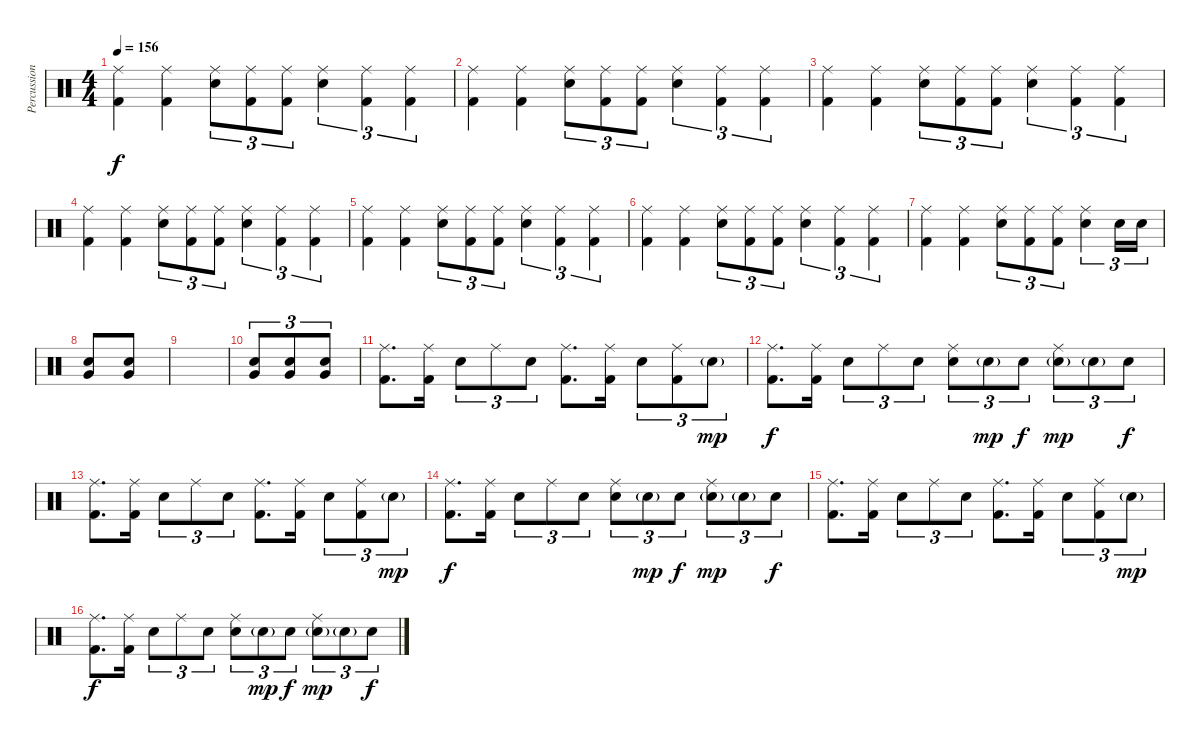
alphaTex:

\track ("Percussion" "Percussion") {instrument percussion}
\staff {score}
\articulation defaults
\ts (4 4)
\tempo 156
\clef neutral
\ks c
("Ride (middle)" "Kick (hit) 2").4{dy f} ("Ride (middle)" "Kick (hit) 2").4 ("Ride (middle)" "Electric Snare (hit)").8{tu (3 2)} ("Ride (middle)" "Kick (hit) 2").8{tu (3 2)} ("Ride (middle)" "Kick (hit) 2").8{tu (3 2)} ("Ride (middle)" "Electric Snare (hit)").4{tu (3 2)} ("Ride (middle)" "Kick (hit) 2").4{tu (3 2)} ("Ride (middle)" "Kick (hit) 2").4{tu (3 2)} |
("Ride (middle)" "Kick (hit) 2").4 ("Ride (middle)" "Kick (hit) 2").4 ("Ride (middle)" "Electric Snare (hit)").8{tu (3 2)} ("Ride (middle)" "Kick (hit) 2").8{tu (3 2)} ("Ride (middle)" "Kick (hit) 2").8{tu (3 2)} ("Ride (middle)" "Electric Snare (hit)").4{tu (3 2)} ("Ride (middle)" "Kick (hit) 2").4{tu (3 2)} ("Ride (middle)" "Kick (hit) 2").4{tu (3 2)} |
("Ride (middle)" "Kick (hit) 2").4 ("Ride (middle)" "Kick (hit) 2").4 ("Ride (middle)" "Electric Snare (hit)").8{tu (3 2)} ("Ride (middle)" "Kick (hit) 2").8{tu (3 2)} ("Ride (middle)" "Kick (hit) 2").8{tu (3 2)} ("Ride (middle)" "Electric Snare (hit)").4{tu (3 2)} ("Ride (middle)" "Kick (hit) 2").4{tu (3 2)} ("Ride (middle)" "Kick (hit) 2").4{tu (3 2)} |
("Ride (middle)" "Kick (hit) 2").4 ("Ride (middle)" "Kick (hit) 2").4 ("Ride (middle)" "Electric Snare (hit)").8{tu (3 2)} ("Ride (middle)" "Kick (hit) 2").8{tu (3 2)} ("Ride (middle)" "Kick (hit) 2").8{tu (3 2)} ("Ride (middle)" "Electric Snare (hit)").4{tu (3 2)} ("Ride (middle)" "Kick (hit) 2").4{tu (3 2)} ("Ride (middle)" "Kick (hit) 2").4{tu (3 2)} |
("Ride (middle)" "Kick (hit) 2").4 ("Ride (middle)" "Kick (hit) 2").4 ("Ride (middle)" "Electric Snare (hit)").8{tu (3 2)} ("Ride (middle)" "Kick (hit) 2").8{tu (3 2)} ("Ride (middle)" "Kick (hit) 2").8{tu (3 2)} ("Ride (middle)" "Electric Snare (hit)").4{tu (3 2)} ("Ride (middle)" "Kick (hit) 2").4{tu (3 2)} ("Ride (middle)" "Kick (hit) 2").4{tu (3 2)} |
("Ride (middle)" "Kick (hit) 2").4 ("Ride (middle)" "Kick (hit) 2").4 ("Ride (middle)" "Electric Snare (hit)").8{tu (3 2)} ("Ride (middle)" "Kick (hit) 2").8{tu (3 2)} ("Ride (middle)" "Kick (hit) 2").8{tu (3 2)} ("Ride (middle)" "Electric Snare (hit)").4{tu (3 2)} ("Ride (middle)" "Kick (hit) 2").4{tu (3 2)} ("Ride (middle)" "Kick (hit) 2").4{tu (3 2)} |
("Ride (middle)" "Kick (hit) 2").4 ("Ride (middle)" "Kick (hit) 2").4 ("Ride (middle)" "Electric Snare (hit)").8{tu (3 2)} ("Ride (middle)" "Kick (hit) 2").8{tu (3 2)} ("Ride (middle)" "Kick (hit) 2").8{tu (3 2)} ("Ride (middle)" "Electric Snare (hit)").4{tu (3 2)} "Electric Snare (hit)".16{tu (3 2)} "Electric Snare (hit)".16{tu (3 2)} |
("Electric Snare (hit)" "Very Low Tom (hit)").8 ("Electric Snare (hit)" "Very Low Tom (hit)").8 |
|
("Electric Snare (hit)" "Very Low Tom (hit)").8{tu (3 2)} ("Electric Snare (hit)" "Very Low Tom (hit)").8{tu (3 2)} ("Electric Snare (hit)" "Very Low Tom (hit)").8{tu (3 2)} |
("Ride (middle)" "Kick (hit) 2").8{d} ("Ride (middle)" "Kick (hit) 2").16 "Electric Snare (hit)".8{tu (3 2)} "Ride (middle)".8{tu (3 2)} "Electric Snare (hit)".8{tu (3 2)} ("Ride (middle)" "Kick (hit) 2").8{d} ("Ride (middle)" "Kick (hit) 2").16 "Electric Snare (hit)".8{tu (3 2)} ("Ride (middle)" "Kick (hit) 2").8{tu (3 2)} "Electric Snare (hit)"{g}.8{tu (3 2) dy mp} |
("Ride (middle)" "Kick (hit) 2").8{d dy f} ("Ride (middle)" "Kick (hit) 2").16 "Electric Snare (hit)".8{tu (3 2)} "Ride (middle)".8{tu (3 2)} "Electric Snare (hit)".8{tu (3 2)} ("Ride (middle)" "Electric Snare (hit)").8{tu (3 2)} "Electric Snare (hit)"{g}.8{tu (3 2) dy mp} "Electric Snare (hit)".8{tu (3 2) dy f} ("Ride (middle)" "Electric Snare (hit)"{g}).8{tu (3 2) dy mp} "Electric Snare (hit)"{g}.8{tu (3 2)} "Electric Snare (hit)".8{tu (3 2) dy f} |
("Ride (middle)" "Kick (hit) 2").8{d} ("Ride (middle)" "Kick (hit) 2").16 "Electric Snare (hit)".8{tu (3 2)} "Ride (middle)".8{tu (3 2)} "Electric Snare (hit)".8{tu (3 2)} ("Ride (middle)" "Kick (hit) 2").8{d} ("Ride (middle)" "Kick (hit) 2").16 "Electric Snare (hit)".8{tu (3 2)} ("Ride (middle)" "Kick (hit) 2").8{tu (3 2)} "Electric Snare (hit)"{g}.8{tu (3 2) dy mp} |
("Ride (middle)" "Kick (hit) 2").8{d dy f} ("Ride (middle)" "Kick (hit) 2").16 "Electric Snare (hit)".8{tu (3 2)} "Ride (middle)".8{tu (3 2)} "Electric Snare (hit)".8{tu (3 2)} ("Ride (middle)" "Electric Snare (hit)").8{tu (3 2)} "Electric Snare (hit)"{g}.8{tu (3 2) dy mp} "Electric Snare (hit)".8{tu (3 2) dy f} ("Ride (middle)" "Electric Snare (hit)"{g}).8{tu (3 2) dy mp} "Electric Snare (hit)"{g}.8{tu (3 2)} "Electric Snare (hit)".8{tu (3 2) dy f} |
("Ride (middle)" "Kick (hit) 2").8{d} ("Ride (middle)" "Kick (hit) 2").16 "Electric Snare (hit)".8{tu (3 2)} "Ride (middle)".8{tu (3 2)} "Electric Snare (hit)".8{tu (3 2)} ("Ride (middle)" "Kick (hit) 2").8{d} ("Ride (middle)" "Kick (hit) 2").16 "Electric Snare (hit)".8{tu (3 2)} ("Ride (middle)" "Kick (hit) 2").8{tu (3 2)} "Electric Snare (hit)"{g}.8{tu (3 2) dy mp} |
("Ride (middle)" "Kick (hit) 2").8{d dy f} ("Ride (middle)" "Kick (hit) 2").16 "Electric Snare (hit)".8{tu (3 2)} "Ride (middle)".8{tu (3 2)} "Electric Snare (hit)".8{tu (3 2)} ("Ride (middle)" "Electric Snare (hit)").8{tu (3 2)} "Electric Snare (hit)"{g}.8{tu (3 2) dy mp} "Electric Snare (hit)".8{tu (3 2) dy f} ("Ride (middle)" "Electric Snare (hit)"{g}).8{tu (3 2) dy mp} "Electric Snare (hit)"{g}.8{tu (3 2)} "Electric Snare (hit)".8{tu (3 2) dy f}
